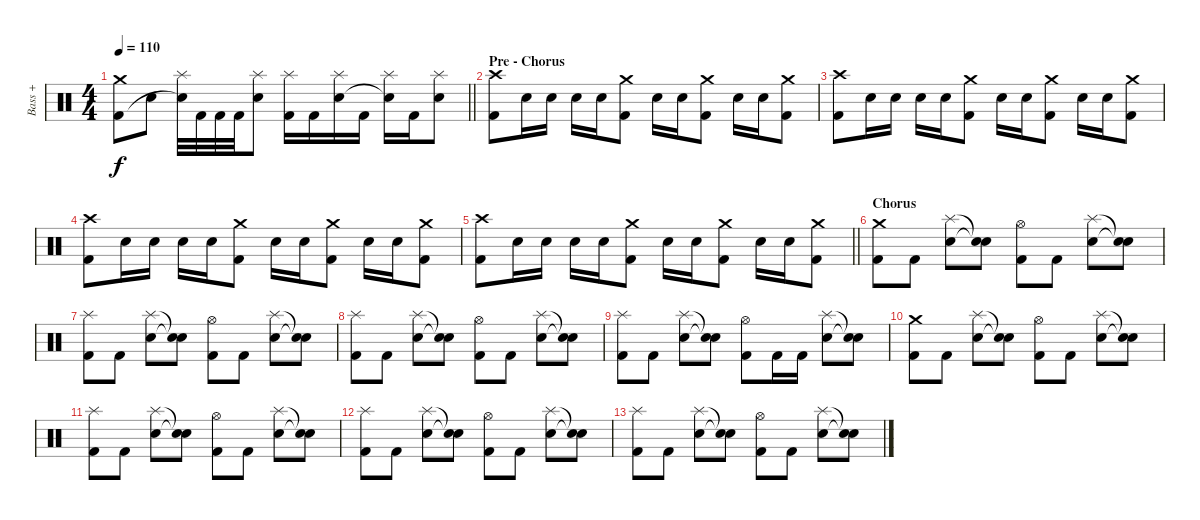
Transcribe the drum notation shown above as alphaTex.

\track ("  Bass +" "  Bass +") {instrument percussion}
\staff {score}
\articulation defaults
\ts (4 4)
\tempo 110
\clef neutral
\barLineRight lightlight
\ks c
("Crash medium (hit)" "Kick (hit) 2").8{dy f} "Snare (hit) 2".8 ("Splash (hit)" "Snare (hit)"{t}).32 "Kick (hit) 2".32 "Kick (hit) 2".32 "Kick (hit) 2".32 ("Splash (hit)" "Snare (hit) 2").8 ("Splash (hit)" "Kick (hit) 2").16 "Kick (hit) 2".16 ("Splash (hit)" "Snare (hit) 2").16 "Kick (hit) 2".16 ("Splash (hit)" "Snare (hit)"{t}).16 "Kick (hit) 2".16 ("Splash (hit)" "Snare (hit) 2").8 |
\section ("" "Pre - Chorus")
("Crash high (hit)" "Kick (hit) 2").8 "Electric Snare (hit)".16 "Electric Snare (hit)".16 "Electric Snare (hit)".16 "Electric Snare (hit)".16 ("Crash medium (hit)" "Kick (hit) 2").8 "Electric Snare (hit)".16 "Electric Snare (hit)".16 ("Crash medium (hit)" "Kick (hit) 2").8 "Electric Snare (hit)".16 "Electric Snare (hit)".16 ("Crash medium (hit)" "Kick (hit) 2").8 |
("Crash high (hit)" "Kick (hit) 2").8 "Electric Snare (hit)".16 "Electric Snare (hit)".16 "Electric Snare (hit)".16 "Electric Snare (hit)".16 ("Crash medium (hit)" "Kick (hit) 2").8 "Electric Snare (hit)".16 "Electric Snare (hit)".16 ("Crash medium (hit)" "Kick (hit) 2").8 "Electric Snare (hit)".16 "Electric Snare (hit)".16 ("Crash medium (hit)" "Kick (hit) 2").8 |
("Crash high (hit)" "Kick (hit) 2").8 "Electric Snare (hit)".16 "Electric Snare (hit)".16 "Electric Snare (hit)".16 "Electric Snare (hit)".16 ("Crash medium (hit)" "Kick (hit) 2").8 "Electric Snare (hit)".16 "Electric Snare (hit)".16 ("Crash medium (hit)" "Kick (hit) 2").8 "Electric Snare (hit)".16 "Electric Snare (hit)".16 ("Crash medium (hit)" "Kick (hit) 2").8 |
\barLineRight lightlight
("Crash high (hit)" "Kick (hit) 2").8 "Electric Snare (hit)".16 "Electric Snare (hit)".16 "Electric Snare (hit)".16 "Electric Snare (hit)".16 ("Crash medium (hit)" "Kick (hit) 2").8 "Electric Snare (hit)".16 "Electric Snare (hit)".16 ("Crash medium (hit)" "Kick (hit) 2").8 "Electric Snare (hit)".16 "Electric Snare (hit)".16 ("Crash medium (hit)" "Kick (hit) 2").8 |
\section ("" "Chorus")
("Crash medium (hit)" "Kick (hit) 2").8 "Kick (hit) 2".8 ("Splash (hit)" "Snare (hit) 2").8 ("Snare (hit)"{t} "Snare (hit)"{t}).8 ("Hi-Hat (open)" "Kick (hit) 2").8 "Kick (hit) 2".8 ("Splash (hit)" "Snare (hit) 2").8 ("Snare (hit)"{t} "Snare (hit)"{t}).8 |
("Splash (hit)" "Kick (hit) 2").8 "Kick (hit) 2".8 ("Splash (hit)" "Snare (hit) 2").8 ("Snare (hit)"{t} "Snare (hit)"{t}).8 ("Hi-Hat (open)" "Kick (hit) 2").8 "Kick (hit) 2".8 ("Splash (hit)" "Snare (hit) 2").8 ("Snare (hit)"{t} "Snare (hit)"{t}).8 |
("Splash (hit)" "Kick (hit) 2").8 "Kick (hit) 2".8 ("Splash (hit)" "Snare (hit) 2").8 ("Snare (hit)"{t} "Snare (hit)"{t}).8 ("Hi-Hat (open)" "Kick (hit) 2").8 "Kick (hit) 2".8 ("Splash (hit)" "Snare (hit) 2").8 ("Snare (hit)"{t} "Snare (hit)"{t}).8 |
("Splash (hit)" "Kick (hit) 2").8 "Kick (hit) 2".8 ("Splash (hit)" "Snare (hit) 2").8 ("Snare (hit)"{t} "Snare (hit)"{t}).8 ("Hi-Hat (open)" "Kick (hit) 2").8 "Kick (hit) 2".16 "Kick (hit) 2".16 ("Splash (hit)" "Snare (hit) 2").8 ("Snare (hit)"{t} "Snare (hit)"{t}).8 |
("Crash medium (hit)" "Kick (hit) 2").8 "Kick (hit) 2".8 ("Splash (hit)" "Snare (hit) 2").8 ("Snare (hit)"{t} "Snare (hit)"{t}).8 ("Hi-Hat (open)" "Kick (hit) 2").8 "Kick (hit) 2".8 ("Splash (hit)" "Snare (hit) 2").8 ("Snare (hit)"{t} "Snare (hit)"{t}).8 |
("Splash (hit)" "Kick (hit) 2").8 "Kick (hit) 2".8 ("Splash (hit)" "Snare (hit) 2").8 ("Snare (hit)"{t} "Snare (hit)"{t}).8 ("Hi-Hat (open)" "Kick (hit) 2").8 "Kick (hit) 2".8 ("Splash (hit)" "Snare (hit) 2").8 ("Snare (hit)"{t} "Snare (hit)"{t}).8 |
("Splash (hit)" "Kick (hit) 2").8 "Kick (hit) 2".8 ("Splash (hit)" "Snare (hit) 2").8 ("Snare (hit)"{t} "Snare (hit)"{t}).8 ("Hi-Hat (open)" "Kick (hit) 2").8 "Kick (hit) 2".8 ("Splash (hit)" "Snare (hit) 2").8 ("Snare (hit)"{t} "Snare (hit)"{t}).8 |
("Splash (hit)" "Kick (hit) 2").8 "Kick (hit) 2".8 ("Splash (hit)" "Snare (hit) 2").8 ("Snare (hit)"{t} "Snare (hit)"{t}).8 ("Hi-Hat (open)" "Kick (hit) 2").8 "Kick (hit) 2".8 ("Splash (hit)" "Snare (hit) 2").8 ("Snare (hit)"{t} "Snare (hit)"{t}).8
